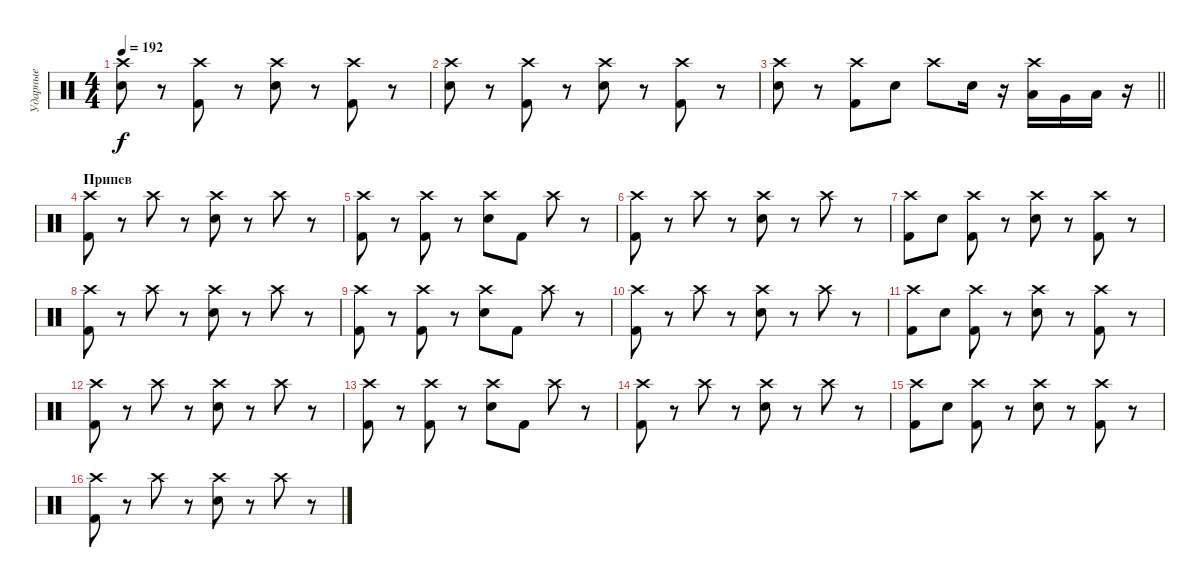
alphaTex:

\track ("Ударные" "Ударные") {instrument percussion}
\staff {score}
\articulation defaults
\ts (4 4)
\tempo 192
\clef neutral
\ks c
("Snare (hit) 2" "Crash high (hit)").8{dy f} r.8 ("Kick (hit) 2" "Crash high (hit)").8 r.8 ("Snare (hit) 2" "Crash high (hit)").8 r.8 ("Kick (hit) 2" "Crash high (hit)").8 r.8 |
("Snare (hit) 2" "Crash high (hit)").8 r.8 ("Kick (hit) 2" "Crash high (hit)").8 r.8 ("Snare (hit) 2" "Crash high (hit)").8 r.8 ("Kick (hit) 2" "Crash high (hit)").8 r.8 |
\barLineRight lightlight
("Snare (hit) 2" "Crash high (hit)").8 r.8 ("Kick (hit) 2" "Crash high (hit)").8 "Snare (hit) 2".8 "Crash high (hit)".8 "Snare (hit) 2".16 r.16 ("Low Tom (hit)" "Crash high (hit)").16 "Very Low Tom (hit)".16 "Low Floor Tom (hit)".16 r.16 |
\section ("" "Припев")
("Kick (hit) 2" "Crash high (hit)").8 r.8 "Crash high (hit)".8 r.8 ("Snare (hit) 2" "Crash high (hit)").8 r.8 "Crash high (hit)".8 r.8 |
("Kick (hit) 2" "Crash high (hit)").8 r.8 ("Kick (hit) 2" "Crash high (hit)").8 r.8 ("Snare (hit) 2" "Crash high (hit)").8 "Kick (hit) 2".8 "Crash high (hit)".8 r.8 |
("Kick (hit) 2" "Crash high (hit)").8 r.8 "Crash high (hit)".8 r.8 ("Snare (hit) 2" "Crash high (hit)").8 r.8 "Crash high (hit)".8 r.8 |
("Kick (hit) 2" "Crash high (hit)").8 "Snare (hit) 2".8 ("Kick (hit) 2" "Crash high (hit)").8 r.8 ("Snare (hit) 2" "Crash high (hit)").8 r.8 ("Crash high (hit)" "Kick (hit) 2").8 r.8 |
("Kick (hit) 2" "Crash high (hit)").8 r.8 "Crash high (hit)".8 r.8 ("Snare (hit) 2" "Crash high (hit)").8 r.8 "Crash high (hit)".8 r.8 |
("Kick (hit) 2" "Crash high (hit)").8 r.8 ("Kick (hit) 2" "Crash high (hit)").8 r.8 ("Snare (hit) 2" "Crash high (hit)").8 "Kick (hit) 2".8 "Crash high (hit)".8 r.8 |
("Kick (hit) 2" "Crash high (hit)").8 r.8 "Crash high (hit)".8 r.8 ("Snare (hit) 2" "Crash high (hit)").8 r.8 "Crash high (hit)".8 r.8 |
("Kick (hit) 2" "Crash high (hit)").8 "Snare (hit) 2".8 ("Kick (hit) 2" "Crash high (hit)").8 r.8 ("Snare (hit) 2" "Crash high (hit)").8 r.8 ("Crash high (hit)" "Kick (hit) 2").8 r.8 |
("Kick (hit) 2" "Crash high (hit)").8 r.8 "Crash high (hit)".8 r.8 ("Snare (hit) 2" "Crash high (hit)").8 r.8 "Crash high (hit)".8 r.8 |
("Kick (hit) 2" "Crash high (hit)").8 r.8 ("Kick (hit) 2" "Crash high (hit)").8 r.8 ("Snare (hit) 2" "Crash high (hit)").8 "Kick (hit) 2".8 "Crash high (hit)".8 r.8 |
("Kick (hit) 2" "Crash high (hit)").8 r.8 "Crash high (hit)".8 r.8 ("Snare (hit) 2" "Crash high (hit)").8 r.8 "Crash high (hit)".8 r.8 |
("Kick (hit) 2" "Crash high (hit)").8 "Snare (hit) 2".8 ("Kick (hit) 2" "Crash high (hit)").8 r.8 ("Snare (hit) 2" "Crash high (hit)").8 r.8 ("Crash high (hit)" "Kick (hit) 2").8 r.8 |
("Kick (hit) 2" "Crash high (hit)").8 r.8 "Crash high (hit)".8 r.8 ("Snare (hit) 2" "Crash high (hit)").8 r.8 "Crash high (hit)".8 r.8
